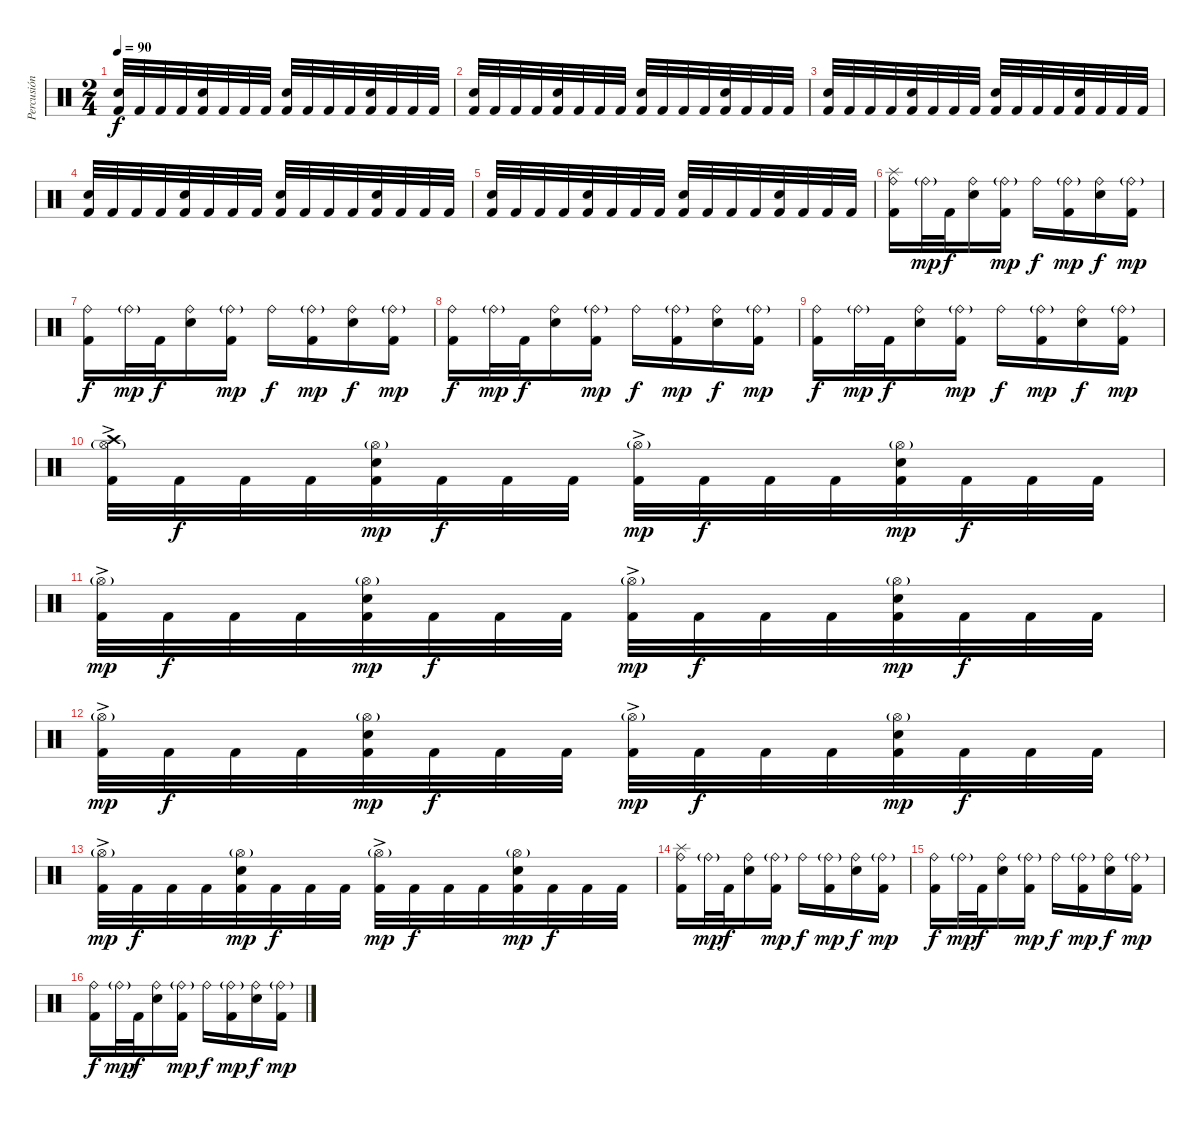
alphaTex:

\track ("Percusión" "Percusión") {instrument percussion}
\staff {score}
\articulation defaults
\ts (2 4)
\tempo 90
\clef neutral
\ks c
("Electric Snare (hit)" "Kick (hit) 2").32{dy f} "Kick (hit) 2".32 "Kick (hit) 2".32 "Kick (hit) 2".32 ("Electric Snare (hit)" "Kick (hit) 2").32 "Kick (hit) 2".32 "Kick (hit) 2".32 "Kick (hit) 2".32 ("Electric Snare (hit)" "Kick (hit) 2").32 "Kick (hit) 2".32 "Kick (hit) 2".32 "Kick (hit) 2".32 ("Electric Snare (hit)" "Kick (hit) 2").32 "Kick (hit) 2".32 "Kick (hit) 2".32 "Kick (hit) 2".32 |
("Electric Snare (hit)" "Kick (hit) 2").32 "Kick (hit) 2".32 "Kick (hit) 2".32 "Kick (hit) 2".32 ("Electric Snare (hit)" "Kick (hit) 2").32 "Kick (hit) 2".32 "Kick (hit) 2".32 "Kick (hit) 2".32 ("Electric Snare (hit)" "Kick (hit) 2").32 "Kick (hit) 2".32 "Kick (hit) 2".32 "Kick (hit) 2".32 ("Electric Snare (hit)" "Kick (hit) 2").32 "Kick (hit) 2".32 "Kick (hit) 2".32 "Kick (hit) 2".32 |
("Electric Snare (hit)" "Kick (hit) 2").32 "Kick (hit) 2".32 "Kick (hit) 2".32 "Kick (hit) 2".32 ("Electric Snare (hit)" "Kick (hit) 2").32 "Kick (hit) 2".32 "Kick (hit) 2".32 "Kick (hit) 2".32 ("Electric Snare (hit)" "Kick (hit) 2").32 "Kick (hit) 2".32 "Kick (hit) 2".32 "Kick (hit) 2".32 ("Electric Snare (hit)" "Kick (hit) 2").32 "Kick (hit) 2".32 "Kick (hit) 2".32 "Kick (hit) 2".32 |
("Electric Snare (hit)" "Kick (hit) 2").32 "Kick (hit) 2".32 "Kick (hit) 2".32 "Kick (hit) 2".32 ("Electric Snare (hit)" "Kick (hit) 2").32 "Kick (hit) 2".32 "Kick (hit) 2".32 "Kick (hit) 2".32 ("Electric Snare (hit)" "Kick (hit) 2").32 "Kick (hit) 2".32 "Kick (hit) 2".32 "Kick (hit) 2".32 ("Electric Snare (hit)" "Kick (hit) 2").32 "Kick (hit) 2".32 "Kick (hit) 2".32 "Kick (hit) 2".32 |
("Electric Snare (hit)" "Kick (hit) 2").32 "Kick (hit) 2".32 "Kick (hit) 2".32 "Kick (hit) 2".32 ("Electric Snare (hit)" "Kick (hit) 2").32 "Kick (hit) 2".32 "Kick (hit) 2".32 "Kick (hit) 2".32 ("Electric Snare (hit)" "Kick (hit) 2").32 "Kick (hit) 2".32 "Kick (hit) 2".32 "Kick (hit) 2".32 ("Electric Snare (hit)" "Kick (hit) 2").32 "Kick (hit) 2".32 "Kick (hit) 2".32 "Kick (hit) 2".32 |
("Kick (hit) 2" "Ride (bell)" "Splash (hit)").16 "Ride (bell)"{g}.32{dy mp} "Kick (hit) 2".32{dy f} ("Electric Snare (hit)" "Ride (bell)").16 ("Kick (hit) 2" "Ride (bell)"{g}).16{dy mp} "Ride (bell)".16{dy f} ("Kick (hit) 2" "Ride (bell)"{g}).16{dy mp} ("Electric Snare (hit)" "Ride (bell)").16{dy f} ("Kick (hit) 2" "Ride (bell)"{g}).16{dy mp} |
("Kick (hit) 2" "Ride (bell)").16{dy f} "Ride (bell)"{g}.32{dy mp} "Kick (hit) 2".32{dy f} ("Electric Snare (hit)" "Ride (bell)").16 ("Kick (hit) 2" "Ride (bell)"{g}).16{dy mp} "Ride (bell)".16{dy f} ("Kick (hit) 2" "Ride (bell)"{g}).16{dy mp} ("Electric Snare (hit)" "Ride (bell)").16{dy f} ("Kick (hit) 2" "Ride (bell)"{g}).16{dy mp} |
("Kick (hit) 2" "Ride (bell)").16{dy f} "Ride (bell)"{g}.32{dy mp} "Kick (hit) 2".32{dy f} ("Electric Snare (hit)" "Ride (bell)").16 ("Kick (hit) 2" "Ride (bell)"{g}).16{dy mp} "Ride (bell)".16{dy f} ("Kick (hit) 2" "Ride (bell)"{g}).16{dy mp} ("Electric Snare (hit)" "Ride (bell)").16{dy f} ("Kick (hit) 2" "Ride (bell)"{g}).16{dy mp} |
("Kick (hit) 2" "Ride (bell)").16{dy f} "Ride (bell)"{g}.32{dy mp} "Kick (hit) 2".32{dy f} ("Electric Snare (hit)" "Ride (bell)").16 ("Kick (hit) 2" "Ride (bell)"{g}).16{dy mp} "Ride (bell)".16{dy f} ("Kick (hit) 2" "Ride (bell)"{g}).16{dy mp} ("Electric Snare (hit)" "Ride (bell)").16{dy f} ("Kick (hit) 2" "Ride (bell)"{g}).16{dy mp} |
("Kick (hit) 2"{ac} "Hi-Hat (open)"{g} "Crash high (hit)").32 "Kick (hit) 2".32{dy f} "Kick (hit) 2".32 "Kick (hit) 2".32 ("Kick (hit) 2" "Electric Snare (hit)" "Hi-Hat (open)"{g}).32{dy mp} "Kick (hit) 2".32{dy f} "Kick (hit) 2".32 "Kick (hit) 2".32 ("Kick (hit) 2"{ac} "Hi-Hat (open)"{g}).32{dy mp} "Kick (hit) 2".32{dy f} "Kick (hit) 2".32 "Kick (hit) 2".32 ("Kick (hit) 2" "Electric Snare (hit)" "Hi-Hat (open)"{g}).32{dy mp} "Kick (hit) 2".32{dy f} "Kick (hit) 2".32 "Kick (hit) 2".32 |
("Kick (hit) 2"{ac} "Hi-Hat (open)"{g}).32{dy mp} "Kick (hit) 2".32{dy f} "Kick (hit) 2".32 "Kick (hit) 2".32 ("Kick (hit) 2" "Electric Snare (hit)" "Hi-Hat (open)"{g}).32{dy mp} "Kick (hit) 2".32{dy f} "Kick (hit) 2".32 "Kick (hit) 2".32 ("Kick (hit) 2"{ac} "Hi-Hat (open)"{g}).32{dy mp} "Kick (hit) 2".32{dy f} "Kick (hit) 2".32 "Kick (hit) 2".32 ("Kick (hit) 2" "Electric Snare (hit)" "Hi-Hat (open)"{g}).32{dy mp} "Kick (hit) 2".32{dy f} "Kick (hit) 2".32 "Kick (hit) 2".32 |
("Kick (hit) 2"{ac} "Hi-Hat (open)"{g}).32{dy mp} "Kick (hit) 2".32{dy f} "Kick (hit) 2".32 "Kick (hit) 2".32 ("Kick (hit) 2" "Electric Snare (hit)" "Hi-Hat (open)"{g}).32{dy mp} "Kick (hit) 2".32{dy f} "Kick (hit) 2".32 "Kick (hit) 2".32 ("Kick (hit) 2"{ac} "Hi-Hat (open)"{g}).32{dy mp} "Kick (hit) 2".32{dy f} "Kick (hit) 2".32 "Kick (hit) 2".32 ("Kick (hit) 2" "Electric Snare (hit)" "Hi-Hat (open)"{g}).32{dy mp} "Kick (hit) 2".32{dy f} "Kick (hit) 2".32 "Kick (hit) 2".32 |
("Kick (hit) 2"{ac} "Hi-Hat (open)"{g}).32{dy mp} "Kick (hit) 2".32{dy f} "Kick (hit) 2".32 "Kick (hit) 2".32 ("Kick (hit) 2" "Electric Snare (hit)" "Hi-Hat (open)"{g}).32{dy mp} "Kick (hit) 2".32{dy f} "Kick (hit) 2".32 "Kick (hit) 2".32 ("Kick (hit) 2"{ac} "Hi-Hat (open)"{g}).32{dy mp} "Kick (hit) 2".32{dy f} "Kick (hit) 2".32 "Kick (hit) 2".32 ("Kick (hit) 2" "Electric Snare (hit)" "Hi-Hat (open)"{g}).32{dy mp} "Kick (hit) 2".32{dy f} "Kick (hit) 2".32 "Kick (hit) 2".32 |
("Kick (hit) 2" "Ride (bell)" "Splash (hit)").16 "Ride (bell)"{g}.32{dy mp} "Kick (hit) 2".32{dy f} ("Electric Snare (hit)" "Ride (bell)").16 ("Kick (hit) 2" "Ride (bell)"{g}).16{dy mp} "Ride (bell)".16{dy f} ("Kick (hit) 2" "Ride (bell)"{g}).16{dy mp} ("Electric Snare (hit)" "Ride (bell)").16{dy f} ("Kick (hit) 2" "Ride (bell)"{g}).16{dy mp} |
("Kick (hit) 2" "Ride (bell)").16{dy f} "Ride (bell)"{g}.32{dy mp} "Kick (hit) 2".32{dy f} ("Electric Snare (hit)" "Ride (bell)").16 ("Kick (hit) 2" "Ride (bell)"{g}).16{dy mp} "Ride (bell)".16{dy f} ("Kick (hit) 2" "Ride (bell)"{g}).16{dy mp} ("Electric Snare (hit)" "Ride (bell)").16{dy f} ("Kick (hit) 2" "Ride (bell)"{g}).16{dy mp} |
("Kick (hit) 2" "Ride (bell)").16{dy f} "Ride (bell)"{g}.32{dy mp} "Kick (hit) 2".32{dy f} ("Electric Snare (hit)" "Ride (bell)").16 ("Kick (hit) 2" "Ride (bell)"{g}).16{dy mp} "Ride (bell)".16{dy f} ("Kick (hit) 2" "Ride (bell)"{g}).16{dy mp} ("Electric Snare (hit)" "Ride (bell)").16{dy f} ("Kick (hit) 2" "Ride (bell)"{g}).16{dy mp}
